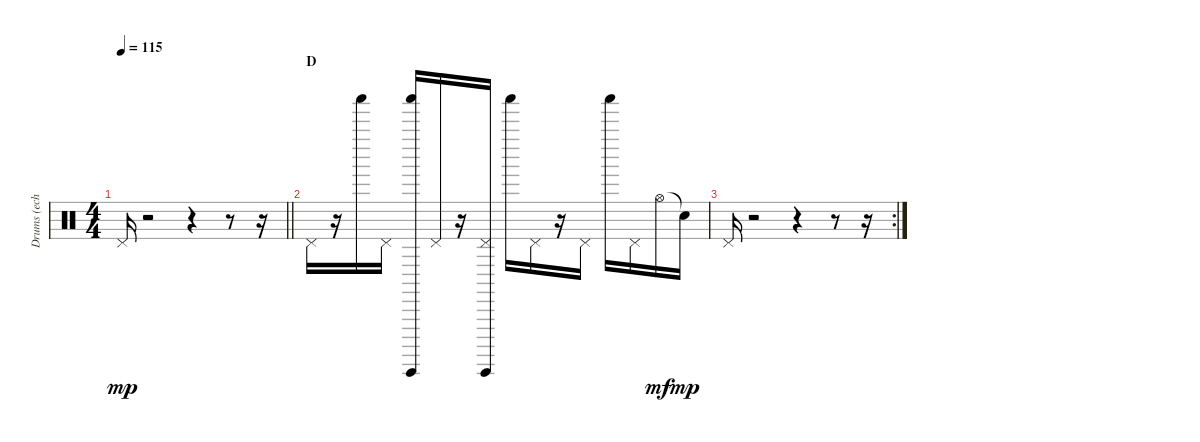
\track ("Drums (echo)" "Drums (ech") {instrument percussion}
\staff {score}
\articulation defaults
\ts (4 4)
\tempo 115
\clef neutral
\barLineRight lightlight
\ks c "Pedal Hi-Hat (hit)".16{dy mp balance 6}
r.2 r.4 r.8 r.16 |
\section ("" "D")
"Pedal Hi-Hat (hit)".16 r.16 "Shaker (hit)".16 "Pedal Hi-Hat (hit)".16 ("Shaker (hit)" "Guiro (hit)").16 "Pedal Hi-Hat (hit)".16 r.16 ("Pedal Hi-Hat (hit)" "Guiro (hit)").16 "Shaker (hit)".16 "Pedal Hi-Hat (hit)".16 r.16 "Pedal Hi-Hat (hit)".16 "Shaker (hit)".16 "Pedal Hi-Hat (hit)".16 "Hi-Hat (open)".16{dy mf balance 11} "Snare (hit)"{t}.16{dy mp} |
\rc 2 "Pedal Hi-Hat (hit)".16{balance 6}
r.2 r.4 r.8 r.16
